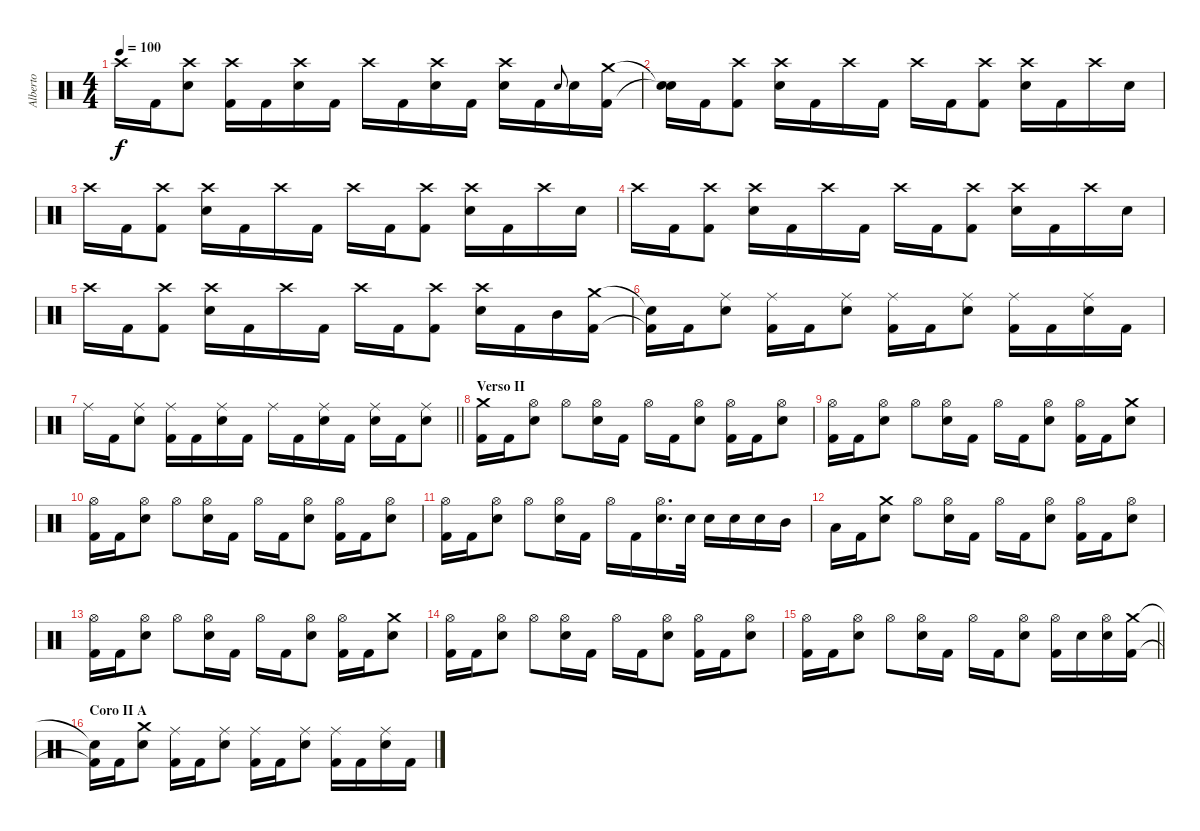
\track ("Alberto" "Alberto") {instrument percussion}
\staff
\articulation defaults
\ts (4 4)
\tempo 100
\clef neutral
\ks c "Crash high (hit)".16{dy f} "Kick (hit) 2".16
("Crash high (hit)" "Electric Snare (hit)").8 ("Crash high (hit)" "Kick (hit) 2").16 "Kick (hit) 2".16 ("Crash high (hit)" "Electric Snare (hit)").16 "Kick (hit) 2".16 "Crash high (hit)".16 "Kick (hit) 2".16 ("Crash high (hit)" "Electric Snare (hit)").16 "Kick (hit) 2".16 ("Crash high (hit)" "Electric Snare (hit)").16 "Kick (hit) 2".16 "Electric Snare (hit)".8{gr onbeat} "Electric Snare (hit)".16 ("Crash medium (hit)" "Kick (hit) 2").16 |
("Snare (hit)"{t} "Snare (hit)"{t}).16 "Kick (hit) 2".16 ("Crash high (hit)" "Kick (hit) 2").8 ("Crash high (hit)" "Electric Snare (hit)").16 "Kick (hit) 2".16 "Crash high (hit)".16 "Kick (hit) 2".16 "Crash high (hit)".16 "Kick (hit) 2".16 ("Crash high (hit)" "Kick (hit) 2").8 ("Crash high (hit)" "Electric Snare (hit)").16 "Kick (hit) 2".16 "Crash high (hit)".16 "Electric Snare (hit)".16 |
"Crash high (hit)".16 "Kick (hit) 2".16 ("Crash high (hit)" "Kick (hit) 2").8 ("Crash high (hit)" "Electric Snare (hit)").16 "Kick (hit) 2".16 "Crash high (hit)".16 "Kick (hit) 2".16 "Crash high (hit)".16 "Kick (hit) 2".16 ("Crash high (hit)" "Kick (hit) 2").8 ("Crash high (hit)" "Electric Snare (hit)").16 "Kick (hit) 2".16 "Crash high (hit)".16 "Electric Snare (hit)".16 |
"Crash high (hit)".16 "Kick (hit) 2".16 ("Crash high (hit)" "Kick (hit) 2").8 ("Crash high (hit)" "Electric Snare (hit)").16 "Kick (hit) 2".16 "Crash high (hit)".16 "Kick (hit) 2".16 "Crash high (hit)".16 "Kick (hit) 2".16 ("Crash high (hit)" "Kick (hit) 2").8 ("Crash high (hit)" "Electric Snare (hit)").16 "Kick (hit) 2".16 "Crash high (hit)".16 "Electric Snare (hit)".16 |
"Crash high (hit)".16 "Kick (hit) 2".16 ("Crash high (hit)" "Kick (hit) 2").8 ("Crash high (hit)" "Electric Snare (hit)").16 "Kick (hit) 2".16 "Crash high (hit)".16 "Kick (hit) 2".16 "Crash high (hit)".16 "Kick (hit) 2".16 ("Crash high (hit)" "Kick (hit) 2").8 ("Crash high (hit)" "Electric Snare (hit)").16 "Kick (hit) 2".16 "Mid Tom (hit)".16 ("Crash medium (hit)" "Kick (hit) 2").16 |
("Snare (hit)"{t} "Kick (hit) 2"{t}).16 "Kick (hit) 2".16 ("Ride (middle)" "Electric Snare (hit)").8 ("Ride (middle)" "Kick (hit) 2").16 "Kick (hit) 2".16 ("Ride (middle)" "Electric Snare (hit)").8 ("Ride (middle)" "Kick (hit) 2").16 "Kick (hit) 2".16 ("Ride (middle)" "Electric Snare (hit)").8 ("Ride (middle)" "Kick (hit) 2").16 "Kick (hit) 2".16 ("Ride (middle)" "Electric Snare (hit)").16 "Kick (hit) 2".16 |
\barLineRight lightlight "Ride (middle)".16 "Kick (hit) 2".16
("Ride (middle)" "Electric Snare (hit)").8 ("Ride (middle)" "Kick (hit) 2").16 "Kick (hit) 2".16 ("Ride (middle)" "Electric Snare (hit)").16 "Kick (hit) 2".16 "Ride (middle)".16 "Kick (hit) 2".16 ("Ride (middle)" "Electric Snare (hit)").16 "Kick (hit) 2".16 ("Ride (middle)" "Electric Snare (hit)").16 "Kick (hit) 2".16 ("Ride (middle)" "Electric Snare (hit)").8 |
\section ("" "Verso II")
("Crash medium (hit)" "Kick (hit) 2").16 "Kick (hit) 2".16 ("Hi-Hat (open)" "Electric Snare (hit)").8 "Hi-Hat (open)".8 ("Hi-Hat (open)" "Electric Snare (hit)").16 "Kick (hit) 2".16 "Hi-Hat (open)".16 "Kick (hit) 2".16 ("Hi-Hat (open)" "Electric Snare (hit)").8 ("Hi-Hat (open)" "Kick (hit) 2").16 "Kick (hit) 2".16 ("Hi-Hat (open)" "Electric Snare (hit)").8 |
("Hi-Hat (open)" "Kick (hit) 2").16 "Kick (hit) 2".16 ("Hi-Hat (open)" "Electric Snare (hit)").8 "Hi-Hat (open)".8 ("Hi-Hat (open)" "Electric Snare (hit)").16 "Kick (hit) 2".16 "Hi-Hat (open)".16 "Kick (hit) 2".16 ("Hi-Hat (open)" "Electric Snare (hit)").8 ("Hi-Hat (open)" "Kick (hit) 2").16 "Kick (hit) 2".16 ("Crash medium (hit)" "Electric Snare (hit)").8 |
("Hi-Hat (open)" "Kick (hit) 2").16 "Kick (hit) 2".16 ("Hi-Hat (open)" "Electric Snare (hit)").8 "Hi-Hat (open)".8 ("Hi-Hat (open)" "Electric Snare (hit)").16 "Kick (hit) 2".16 "Hi-Hat (open)".16 "Kick (hit) 2".16 ("Hi-Hat (open)" "Electric Snare (hit)").8 ("Hi-Hat (open)" "Kick (hit) 2").16 "Kick (hit) 2".16 ("Hi-Hat (open)" "Electric Snare (hit)").8 |
("Hi-Hat (open)" "Kick (hit) 2").16 "Kick (hit) 2".16 ("Hi-Hat (open)" "Electric Snare (hit)").8 "Hi-Hat (open)".8 ("Hi-Hat (open)" "Electric Snare (hit)").16 "Kick (hit) 2".16 "Hi-Hat (open)".16 "Kick (hit) 2".16 ("Hi-Hat (open)" "Electric Snare (hit)").16{d} "Electric Snare (hit)".32 "Electric Snare (hit)".16 "Electric Snare (hit)".16 "Electric Snare (hit)".16 "Mid Tom (hit)".16 |
"Low Tom (hit)".16 "Kick (hit) 2".16 ("Crash medium (hit)" "Electric Snare (hit)").8 "Hi-Hat (open)".8 ("Hi-Hat (open)" "Electric Snare (hit)").16 "Kick (hit) 2".16 "Hi-Hat (open)".16 "Kick (hit) 2".16 ("Hi-Hat (open)" "Electric Snare (hit)").8 ("Hi-Hat (open)" "Kick (hit) 2").16 "Kick (hit) 2".16 ("Hi-Hat (open)" "Electric Snare (hit)").8 |
("Hi-Hat (open)" "Kick (hit) 2").16 "Kick (hit) 2".16 ("Hi-Hat (open)" "Electric Snare (hit)").8 "Hi-Hat (open)".8 ("Hi-Hat (open)" "Electric Snare (hit)").16 "Kick (hit) 2".16 "Hi-Hat (open)".16 "Kick (hit) 2".16 ("Hi-Hat (open)" "Electric Snare (hit)").8 ("Hi-Hat (open)" "Kick (hit) 2").16 "Kick (hit) 2".16 ("Crash medium (hit)" "Electric Snare (hit)").8 |
("Hi-Hat (open)" "Kick (hit) 2").16 "Kick (hit) 2".16 ("Hi-Hat (open)" "Electric Snare (hit)").8 "Hi-Hat (open)".8 ("Hi-Hat (open)" "Electric Snare (hit)").16 "Kick (hit) 2".16 "Hi-Hat (open)".16 "Kick (hit) 2".16 ("Hi-Hat (open)" "Electric Snare (hit)").8 ("Hi-Hat (open)" "Kick (hit) 2").16 "Kick (hit) 2".16 ("Hi-Hat (open)" "Electric Snare (hit)").8 |
\barLineRight lightlight
("Hi-Hat (open)" "Kick (hit) 2").16 "Kick (hit) 2".16 ("Hi-Hat (open)" "Electric Snare (hit)").8 "Hi-Hat (open)".8 ("Hi-Hat (open)" "Electric Snare (hit)").16 "Kick (hit) 2".16 "Hi-Hat (open)".16 "Kick (hit) 2".16 ("Hi-Hat (open)" "Electric Snare (hit)").8 ("Hi-Hat (open)" "Kick (hit) 2").16 "Electric Snare (hit)".16 ("Hi-Hat (open)" "Electric Snare (hit)").16 ("Crash medium (hit)" "Kick (hit) 2").16 |
\section ("" "Coro II A")
("Snare (hit)"{t} "Kick (hit) 2"{t}).16 "Kick (hit) 2".16 ("Crash medium (hit)" "Electric Snare (hit)").8 ("Ride (middle)" "Kick (hit) 2").16 "Kick (hit) 2".16 ("Ride (middle)" "Electric Snare (hit)").8 ("Ride (middle)" "Kick (hit) 2").16 "Kick (hit) 2".16 ("Ride (middle)" "Electric Snare (hit)").8 ("Ride (middle)" "Kick (hit) 2").16 "Kick (hit) 2".16 ("Ride (middle)" "Electric Snare (hit)").16 "Kick (hit) 2".16
